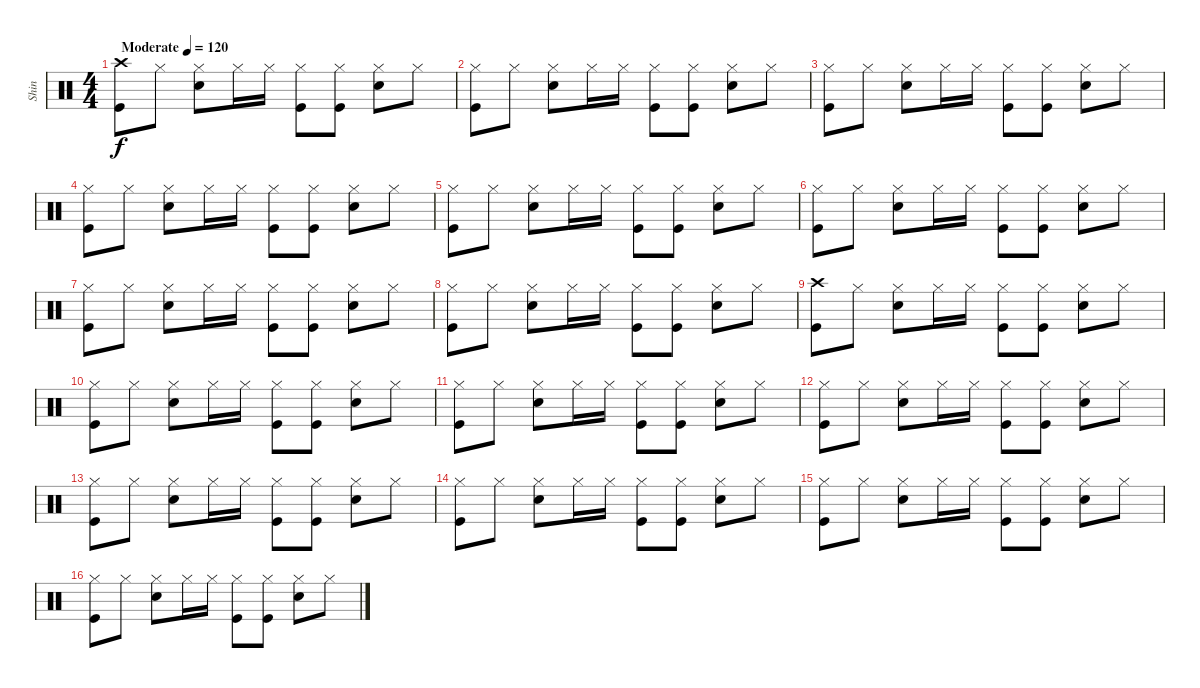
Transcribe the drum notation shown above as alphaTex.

\track ("Shin" "Shin") {instrument percussion}
\staff {score}
\articulation defaults
\ts (4 4)
\tempo (120 "Moderate")
\clef neutral
\ks c
("Crash high (hit)" "Kick (hit)").8{dy f} "Hi-Hat (closed)".8 ("Hi-Hat (closed)" "Electric Snare (hit)").8 "Hi-Hat (closed)".16 "Hi-Hat (closed)".16 ("Hi-Hat (closed)" "Kick (hit)").8 ("Hi-Hat (closed)" "Kick (hit)").8 ("Hi-Hat (closed)" "Electric Snare (hit)").8 "Hi-Hat (closed)".8 |
("Hi-Hat (closed)" "Kick (hit)").8 "Hi-Hat (closed)".8 ("Hi-Hat (closed)" "Electric Snare (hit)").8 "Hi-Hat (closed)".16 "Hi-Hat (closed)".16 ("Hi-Hat (closed)" "Kick (hit)").8 ("Hi-Hat (closed)" "Kick (hit)").8 ("Hi-Hat (closed)" "Electric Snare (hit)").8 "Hi-Hat (closed)".8 |
("Hi-Hat (closed)" "Kick (hit)").8 "Hi-Hat (closed)".8 ("Hi-Hat (closed)" "Electric Snare (hit)").8 "Hi-Hat (closed)".16 "Hi-Hat (closed)".16 ("Hi-Hat (closed)" "Kick (hit)").8 ("Hi-Hat (closed)" "Kick (hit)").8 ("Hi-Hat (closed)" "Electric Snare (hit)").8 "Hi-Hat (closed)".8 |
("Hi-Hat (closed)" "Kick (hit)").8 "Hi-Hat (closed)".8 ("Hi-Hat (closed)" "Electric Snare (hit)").8 "Hi-Hat (closed)".16 "Hi-Hat (closed)".16 ("Hi-Hat (closed)" "Kick (hit)").8 ("Hi-Hat (closed)" "Kick (hit)").8 ("Hi-Hat (closed)" "Electric Snare (hit)").8 "Hi-Hat (closed)".8 |
("Hi-Hat (closed)" "Kick (hit)").8 "Hi-Hat (closed)".8 ("Hi-Hat (closed)" "Electric Snare (hit)").8 "Hi-Hat (closed)".16 "Hi-Hat (closed)".16 ("Hi-Hat (closed)" "Kick (hit)").8 ("Hi-Hat (closed)" "Kick (hit)").8 ("Hi-Hat (closed)" "Electric Snare (hit)").8 "Hi-Hat (closed)".8 |
("Hi-Hat (closed)" "Kick (hit)").8 "Hi-Hat (closed)".8 ("Hi-Hat (closed)" "Electric Snare (hit)").8 "Hi-Hat (closed)".16 "Hi-Hat (closed)".16 ("Hi-Hat (closed)" "Kick (hit)").8 ("Hi-Hat (closed)" "Kick (hit)").8 ("Hi-Hat (closed)" "Electric Snare (hit)").8 "Hi-Hat (closed)".8 |
("Hi-Hat (closed)" "Kick (hit)").8 "Hi-Hat (closed)".8 ("Hi-Hat (closed)" "Electric Snare (hit)").8 "Hi-Hat (closed)".16 "Hi-Hat (closed)".16 ("Hi-Hat (closed)" "Kick (hit)").8 ("Hi-Hat (closed)" "Kick (hit)").8 ("Hi-Hat (closed)" "Electric Snare (hit)").8 "Hi-Hat (closed)".8 |
("Hi-Hat (closed)" "Kick (hit)").8 "Hi-Hat (closed)".8 ("Hi-Hat (closed)" "Electric Snare (hit)").8 "Hi-Hat (closed)".16 "Hi-Hat (closed)".16 ("Hi-Hat (closed)" "Kick (hit)").8 ("Hi-Hat (closed)" "Kick (hit)").8 ("Hi-Hat (closed)" "Electric Snare (hit)").8 "Hi-Hat (closed)".8 |
("Crash high (hit)" "Kick (hit)").8 "Hi-Hat (closed)".8 ("Hi-Hat (closed)" "Electric Snare (hit)").8 "Hi-Hat (closed)".16 "Hi-Hat (closed)".16 ("Hi-Hat (closed)" "Kick (hit)").8 ("Hi-Hat (closed)" "Kick (hit)").8 ("Hi-Hat (closed)" "Electric Snare (hit)").8 "Hi-Hat (closed)".8 |
("Hi-Hat (closed)" "Kick (hit)").8 "Hi-Hat (closed)".8 ("Hi-Hat (closed)" "Electric Snare (hit)").8 "Hi-Hat (closed)".16 "Hi-Hat (closed)".16 ("Hi-Hat (closed)" "Kick (hit)").8 ("Hi-Hat (closed)" "Kick (hit)").8 ("Hi-Hat (closed)" "Electric Snare (hit)").8 "Hi-Hat (closed)".8 |
("Hi-Hat (closed)" "Kick (hit)").8 "Hi-Hat (closed)".8 ("Hi-Hat (closed)" "Electric Snare (hit)").8 "Hi-Hat (closed)".16 "Hi-Hat (closed)".16 ("Hi-Hat (closed)" "Kick (hit)").8 ("Hi-Hat (closed)" "Kick (hit)").8 ("Hi-Hat (closed)" "Electric Snare (hit)").8 "Hi-Hat (closed)".8 |
("Hi-Hat (closed)" "Kick (hit)").8 "Hi-Hat (closed)".8 ("Hi-Hat (closed)" "Electric Snare (hit)").8 "Hi-Hat (closed)".16 "Hi-Hat (closed)".16 ("Hi-Hat (closed)" "Kick (hit)").8 ("Hi-Hat (closed)" "Kick (hit)").8 ("Hi-Hat (closed)" "Electric Snare (hit)").8 "Hi-Hat (closed)".8 |
("Hi-Hat (closed)" "Kick (hit)").8 "Hi-Hat (closed)".8 ("Hi-Hat (closed)" "Electric Snare (hit)").8 "Hi-Hat (closed)".16 "Hi-Hat (closed)".16 ("Hi-Hat (closed)" "Kick (hit)").8 ("Hi-Hat (closed)" "Kick (hit)").8 ("Hi-Hat (closed)" "Electric Snare (hit)").8 "Hi-Hat (closed)".8 |
("Hi-Hat (closed)" "Kick (hit)").8 "Hi-Hat (closed)".8 ("Hi-Hat (closed)" "Electric Snare (hit)").8 "Hi-Hat (closed)".16 "Hi-Hat (closed)".16 ("Hi-Hat (closed)" "Kick (hit)").8 ("Hi-Hat (closed)" "Kick (hit)").8 ("Hi-Hat (closed)" "Electric Snare (hit)").8 "Hi-Hat (closed)".8 |
("Hi-Hat (closed)" "Kick (hit)").8 "Hi-Hat (closed)".8 ("Hi-Hat (closed)" "Electric Snare (hit)").8 "Hi-Hat (closed)".16 "Hi-Hat (closed)".16 ("Hi-Hat (closed)" "Kick (hit)").8 ("Hi-Hat (closed)" "Kick (hit)").8 ("Hi-Hat (closed)" "Electric Snare (hit)").8 "Hi-Hat (closed)".8 |
("Hi-Hat (closed)" "Kick (hit)").8 "Hi-Hat (closed)".8 ("Hi-Hat (closed)" "Electric Snare (hit)").8 "Hi-Hat (closed)".16 "Hi-Hat (closed)".16 ("Hi-Hat (closed)" "Kick (hit)").8 ("Hi-Hat (closed)" "Kick (hit)").8 ("Hi-Hat (closed)" "Electric Snare (hit)").8 "Hi-Hat (closed)".8
